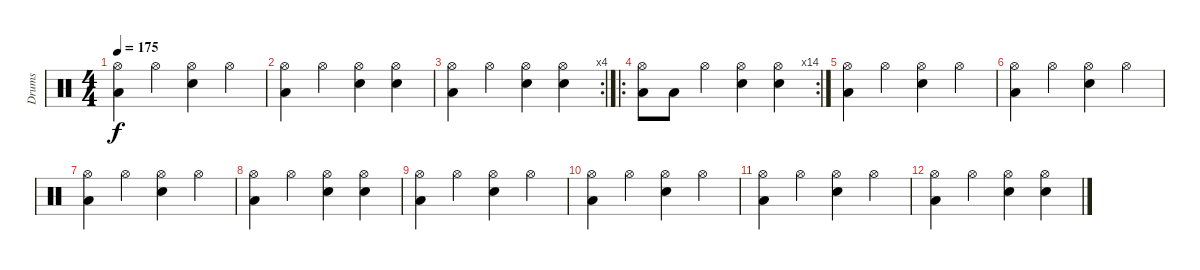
\track ("Drums" "Drums") {instrument percussion}
\staff {score}
\articulation defaults
\ts (4 4)
\tempo 175
\clef neutral
\ks c
("Low Tom (hit)" "Hi-Hat (open)").4{dy f} "Hi-Hat (open)".4 ("Electric Snare (hit)" "Hi-Hat (open)").4 "Hi-Hat (open)".4 |
("Low Tom (hit)" "Hi-Hat (open)").4 "Hi-Hat (open)".4 ("Electric Snare (hit)" "Hi-Hat (open)").4 ("Electric Snare (hit)" "Hi-Hat (open)").4 |
\rc 4
("Low Tom (hit)" "Hi-Hat (open)").4 "Hi-Hat (open)".4 ("Electric Snare (hit)" "Hi-Hat (open)").4 ("Electric Snare (hit)" "Hi-Hat (open)").4 |
\ro
\rc 14
("Low Tom (hit)" "Hi-Hat (open)").8 "Low Tom (hit)".8 "Hi-Hat (open)".4 ("Electric Snare (hit)" "Hi-Hat (open)").4 ("Electric Snare (hit)" "Hi-Hat (open)").4 |
("Low Tom (hit)" "Hi-Hat (open)").4 "Hi-Hat (open)".4 ("Electric Snare (hit)" "Hi-Hat (open)").4 "Hi-Hat (open)".4 |
("Low Tom (hit)" "Hi-Hat (open)").4 "Hi-Hat (open)".4 ("Electric Snare (hit)" "Hi-Hat (open)").4 "Hi-Hat (open)".4 |
("Low Tom (hit)" "Hi-Hat (open)").4 "Hi-Hat (open)".4 ("Electric Snare (hit)" "Hi-Hat (open)").4 "Hi-Hat (open)".4 |
("Low Tom (hit)" "Hi-Hat (open)").4 "Hi-Hat (open)".4 ("Electric Snare (hit)" "Hi-Hat (open)").4 ("Electric Snare (hit)" "Hi-Hat (open)").4 |
("Low Tom (hit)" "Hi-Hat (open)").4 "Hi-Hat (open)".4 ("Electric Snare (hit)" "Hi-Hat (open)").4 "Hi-Hat (open)".4 |
("Low Tom (hit)" "Hi-Hat (open)").4 "Hi-Hat (open)".4 ("Electric Snare (hit)" "Hi-Hat (open)").4 "Hi-Hat (open)".4 |
("Low Tom (hit)" "Hi-Hat (open)").4 "Hi-Hat (open)".4 ("Electric Snare (hit)" "Hi-Hat (open)").4 "Hi-Hat (open)".4 |
("Low Tom (hit)" "Hi-Hat (open)").4 "Hi-Hat (open)".4 ("Electric Snare (hit)" "Hi-Hat (open)").4 ("Electric Snare (hit)" "Hi-Hat (open)").4
